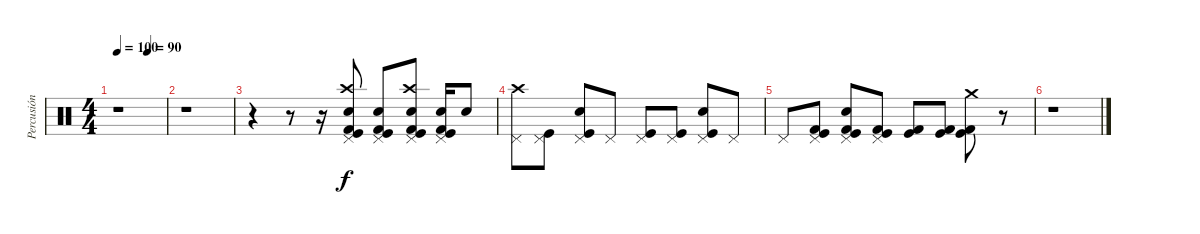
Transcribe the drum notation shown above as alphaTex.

\track ("Percusión" "Percusión") {instrument percussion}
\staff {score}
\articulation defaults
\ts (4 4)
\tempo 100
\tempo (90 0.625)
\clef neutral
\ks c
r.1{dy f} |
r.1 |
r.4 r.8 r.16 ("Pedal Hi-Hat (hit)" "Crash high (hit)" "Kick (hit)" "Kick (hit) 2" "Snare (hit) 2").8 ("Pedal Hi-Hat (hit)" "Kick (hit)" "Kick (hit) 2" "Snare (hit) 2").8 ("Pedal Hi-Hat (hit)" "Crash high (hit)" "Kick (hit)" "Kick (hit) 2" "Snare (hit) 2").8 ("Pedal Hi-Hat (hit)" "Kick (hit)" "Kick (hit) 2" "Snare (hit) 2").16 "Snare (hit) 2".8 |
("Pedal Hi-Hat (hit)" "Crash high (hit)").8 ("Pedal Hi-Hat (hit)" "Kick (hit)").8 ("Pedal Hi-Hat (hit)" "Kick (hit)" "Snare (hit) 2").8 "Pedal Hi-Hat (hit)".8 ("Pedal Hi-Hat (hit)" "Kick (hit)").8 ("Pedal Hi-Hat (hit)" "Kick (hit)").8 ("Pedal Hi-Hat (hit)" "Kick (hit)" "Snare (hit) 2").8 "Pedal Hi-Hat (hit)".8 |
"Pedal Hi-Hat (hit)".8 ("Pedal Hi-Hat (hit)" "Kick (hit)" "Kick (hit) 2").8 ("Pedal Hi-Hat (hit)" "Kick (hit)" "Kick (hit) 2" "Snare (hit) 2").8 ("Pedal Hi-Hat (hit)" "Kick (hit)" "Kick (hit) 2").8{balance 11} ("Kick (hit)" "Kick (hit) 2").8{balance 5} ("Kick (hit)" "Kick (hit) 2").8{balance 13} ("Kick (hit)" "Kick (hit) 2" "Crash medium (hit)").8{balance 10} r.8 |
r.1
